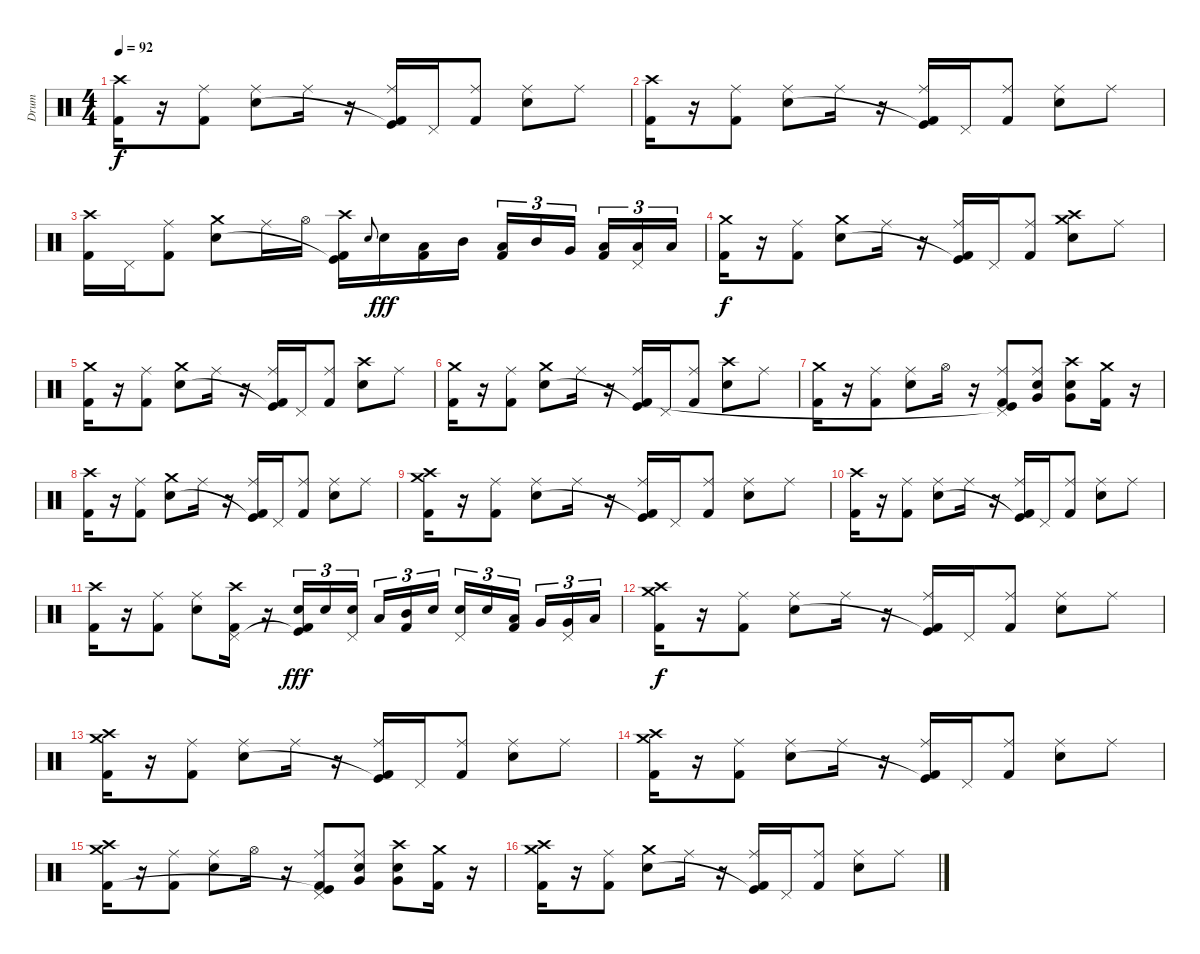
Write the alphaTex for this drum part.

\track ("Drum" "Drum") {instrument percussion}
\staff {score}
\articulation defaults
\ts (4 4)
\tempo 92
\clef neutral
\ks c
("Crash high (hit)" "Kick (hit) 2").16{dy f} r.16 ("Ride (middle)" "Kick (hit) 2").8 ("Ride (middle)" "Snare (hit) 2").8 "Ride (middle)".16 r.16 ("Ride (middle)" "Kick (hit)"{t} "Kick (hit) 2").16 "Pedal Hi-Hat (hit)".16 ("Ride (middle)" "Kick (hit) 2").8 ("Ride (middle)" "Snare (hit) 2").8 "Ride (middle)".8 |
("Crash high (hit)" "Kick (hit) 2").16 r.16 ("Ride (middle)" "Kick (hit) 2").8 ("Ride (middle)" "Snare (hit) 2").8 "Ride (middle)".16 r.16 ("Ride (middle)" "Kick (hit)"{t} "Kick (hit) 2").16 "Pedal Hi-Hat (hit)".16 ("Ride (middle)" "Kick (hit) 2").8 ("Ride (middle)" "Snare (hit) 2").8 "Ride (middle)".8 |
("Crash high (hit)" "Kick (hit) 2").16 "Pedal Hi-Hat (hit)".16 ("Ride (middle)" "Kick (hit) 2").8 ("Crash medium (hit)" "Snare (hit) 2").8 "Ride (middle)".16 "Hi-Hat (open)".16 ("Crash high (hit)" "Kick (hit)"{t} "Kick (hit) 2").16 "Snare (hit) 2".8{gr onbeat} "Snare (hit) 2".16{dy fff} ("Low Tom (hit)" "Kick (hit) 2").16 "Mid Tom (hit)".16 ("Low Tom (hit)" "Kick (hit) 2").16{tu (3 2)} "Mid Tom (hit)".16{tu (3 2)} "Very Low Tom (hit)".16{tu (3 2) beam splitsecondary} ("Low Floor Tom (hit)" "Kick (hit) 2").16{tu (3 2)} ("Low Floor Tom (hit)" "Pedal Hi-Hat (hit)").16{tu (3 2)} "Low Tom (hit)".16{tu (3 2)} |
("Crash medium (hit)" "Kick (hit) 2").16{dy f} r.16 ("Ride (middle)" "Kick (hit) 2").8 ("Crash medium (hit)" "Snare (hit) 2").8 "Ride (middle)".16 r.16 ("Ride (middle)" "Kick (hit)"{t} "Kick (hit) 2").16 "Pedal Hi-Hat (hit)".16 ("Ride (middle)" "Kick (hit) 2").8 ("Crash high (hit)" "Snare (hit) 2" "Crash medium (hit)").8 "Ride (middle)".8 |
("Crash medium (hit)" "Kick (hit) 2").16 r.16 ("Ride (middle)" "Kick (hit) 2").8 ("Crash medium (hit)" "Snare (hit) 2").8 "Ride (middle)".16 r.16 ("Ride (middle)" "Kick (hit)"{t} "Kick (hit) 2").16 "Pedal Hi-Hat (hit)".16 ("Ride (middle)" "Kick (hit) 2").8 ("Crash high (hit)" "Snare (hit) 2").8 "Ride (middle)".8 |
("Crash medium (hit)" "Kick (hit) 2").16 r.16 ("Ride (middle)" "Kick (hit) 2").8 ("Crash medium (hit)" "Snare (hit) 2").8 "Ride (middle)".16 r.16 ("Ride (middle)" "Kick (hit)"{t} "Kick (hit) 2").16 "Pedal Hi-Hat (hit)".16 ("Ride (middle)" "Kick (hit) 2").8 ("Crash high (hit)" "Snare (hit) 2").8 "Ride (middle)".8 |
("Crash medium (hit)" "Kick (hit) 2").16 r.16 ("Ride (middle)" "Kick (hit) 2").8 ("Ride (middle)" "Snare (hit) 2").8 "Hi-Hat (open)".16 r.16 ("Ride (middle)" "Pedal Hi-Hat (hit)" "Kick (hit)"{t} "Kick (hit) 2").8 ("Ride (middle)" "Snare (hit) 2" "Very Low Tom (hit)").8 ("Crash high (hit)" "Snare (hit) 2" "Very Low Tom (hit)").8 ("Crash medium (hit)" "Kick (hit) 2").16 r.16 |
("Crash high (hit)" "Kick (hit) 2").16 r.16 ("Ride (middle)" "Kick (hit) 2").8 ("Crash medium (hit)" "Snare (hit) 2").8 "Ride (middle)".16 r.16 ("Ride (middle)" "Kick (hit)"{t} "Kick (hit) 2").16 "Pedal Hi-Hat (hit)".16 ("Ride (middle)" "Kick (hit) 2").8 ("Ride (middle)" "Snare (hit) 2").8 "Ride (middle)".8 |
("Crash high (hit)" "Crash medium (hit)" "Kick (hit) 2").16 r.16 ("Ride (middle)" "Kick (hit) 2").8 ("Ride (middle)" "Snare (hit) 2").8 "Ride (middle)".16 r.16 ("Ride (middle)" "Kick (hit)"{t} "Kick (hit) 2").16 "Pedal Hi-Hat (hit)".16 ("Ride (middle)" "Kick (hit) 2").8 ("Ride (middle)" "Snare (hit) 2").8 "Ride (middle)".8 |
("Crash high (hit)" "Kick (hit) 2").16 r.16 ("Ride (middle)" "Kick (hit) 2").8 ("Ride (middle)" "Snare (hit) 2").8 "Ride (middle)".16 r.16 ("Ride (middle)" "Kick (hit)"{t} "Kick (hit) 2").16 "Pedal Hi-Hat (hit)".16 ("Ride (middle)" "Kick (hit) 2").8 ("Ride (middle)" "Snare (hit) 2").8 "Ride (middle)".8 |
("Crash high (hit)" "Kick (hit) 2").16 r.16 ("Ride (middle)" "Kick (hit) 2").8 ("Ride (middle)" "Snare (hit) 2").8 ("Crash high (hit)" "Pedal Hi-Hat (hit)" "Kick (hit) 2").16 r.16 ("Snare (hit) 2" "Kick (hit)"{t} "Kick (hit) 2").16{tu (3 2) dy fff} "Snare (hit) 2".16{tu (3 2)} ("Snare (hit) 2" "Pedal Hi-Hat (hit)").16{tu (3 2) beam splitsecondary} "Low Tom (hit)".16{tu (3 2)} ("Mid Tom (hit)" "Kick (hit) 2").16{tu (3 2)} "Snare (hit) 2".16{tu (3 2)} ("Snare (hit) 2" "Pedal Hi-Hat (hit)").16{tu (3 2)} "Snare (hit) 2".16{tu (3 2)} ("Low Tom (hit)" "Kick (hit) 2").16{tu (3 2) beam splitsecondary} "Very Low Tom (hit)".16{tu (3 2)} ("Very Low Tom (hit)" "Pedal Hi-Hat (hit)").16{tu (3 2)} "Low Floor Tom (hit)".16{tu (3 2)} |
("Crash high (hit)" "Crash medium (hit)" "Kick (hit) 2").16{dy f} r.16 ("Ride (middle)" "Kick (hit) 2").8 ("Ride (middle)" "Snare (hit) 2").8 "Ride (middle)".16 r.16 ("Ride (middle)" "Kick (hit)"{t} "Kick (hit) 2").16 "Pedal Hi-Hat (hit)".16 ("Ride (middle)" "Kick (hit) 2").8 ("Ride (middle)" "Snare (hit) 2").8 "Ride (middle)".8 |
("Crash high (hit)" "Crash medium (hit)" "Kick (hit) 2").16 r.16 ("Ride (middle)" "Kick (hit) 2").8 ("Ride (middle)" "Snare (hit) 2").8 "Ride (middle)".16 r.16 ("Ride (middle)" "Kick (hit)"{t} "Kick (hit) 2").16 "Pedal Hi-Hat (hit)".16 ("Ride (middle)" "Kick (hit) 2").8 ("Ride (middle)" "Snare (hit) 2").8 "Ride (middle)".8 |
("Crash high (hit)" "Crash medium (hit)" "Kick (hit) 2").16 r.16 ("Ride (middle)" "Kick (hit) 2").8 ("Ride (middle)" "Snare (hit) 2").8 "Ride (middle)".16 r.16 ("Ride (middle)" "Kick (hit)"{t} "Kick (hit) 2").16 "Pedal Hi-Hat (hit)".16 ("Ride (middle)" "Kick (hit) 2").8 ("Ride (middle)" "Snare (hit) 2").8 "Ride (middle)".8 |
("Crash high (hit)" "Crash medium (hit)" "Kick (hit) 2").16 r.16 ("Ride (middle)" "Kick (hit) 2").8 ("Ride (middle)" "Snare (hit) 2").8 "Hi-Hat (open)".16 r.16 ("Ride (middle)" "Pedal Hi-Hat (hit)" "Kick (hit)"{t} "Kick (hit) 2").8 ("Ride (middle)" "Snare (hit) 2" "Very Low Tom (hit)").8 ("Crash high (hit)" "Snare (hit) 2" "Very Low Tom (hit)").8 ("Crash medium (hit)" "Kick (hit) 2").16 r.16 |
("Crash high (hit)" "Crash medium (hit)" "Kick (hit) 2").16 r.16 ("Ride (middle)" "Kick (hit) 2").8 ("Crash medium (hit)" "Snare (hit) 2").8 "Ride (middle)".16 r.16 ("Ride (middle)" "Kick (hit)"{t} "Kick (hit) 2").16 "Pedal Hi-Hat (hit)".16 ("Ride (middle)" "Kick (hit) 2").8 ("Ride (middle)" "Snare (hit) 2").8 "Ride (middle)".8
